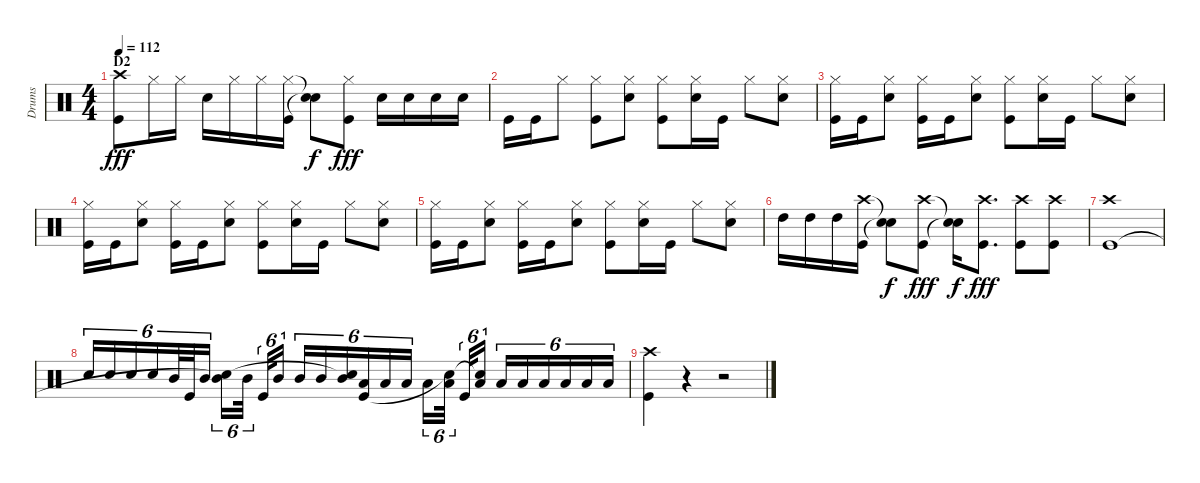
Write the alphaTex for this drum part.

\track ("Drums" "Drums") {instrument percussion}
\staff {score}
\articulation defaults
\ts (4 4)
\section ("" "D2")
\tempo 112
\clef neutral
\ks c
("Crash high (hit)" "Kick (hit)").8{dy fff} "Hi-Hat (closed)".16 "Hi-Hat (closed)".16 "Snare (hit) 2".16 "Hi-Hat (closed)".16 "Hi-Hat (closed)".16 ("Hi-Hat (closed)" "Kick (hit)").16 ("Snare (hit)"{t} "Snare (hit)"{t}).8{dy f} ("Hi-Hat (closed)" "Kick (hit)").8{dy fff} "Snare (hit) 2".16 "Snare (hit) 2".16 "Snare (hit) 2".16 "Snare (hit) 2".16 |
"Kick (hit)".16 "Kick (hit)".16 "Hi-Hat (closed)".8 ("Hi-Hat (closed)" "Kick (hit)").8 ("Hi-Hat (closed)" "Snare (hit) 2").8 ("Hi-Hat (closed)" "Kick (hit)").8 ("Hi-Hat (closed)" "Snare (hit) 2").16 "Kick (hit)".16 "Hi-Hat (closed)".8 ("Hi-Hat (closed)" "Snare (hit) 2").8 |
("Hi-Hat (closed)" "Kick (hit)").16 "Kick (hit)".16 ("Hi-Hat (closed)" "Snare (hit) 2").8 ("Hi-Hat (closed)" "Kick (hit)").16 "Kick (hit)".16 ("Hi-Hat (closed)" "Snare (hit) 2").8 ("Hi-Hat (closed)" "Kick (hit)").8 ("Hi-Hat (closed)" "Snare (hit) 2").16 "Kick (hit)".16 "Hi-Hat (closed)".8 ("Hi-Hat (closed)" "Snare (hit) 2").8 |
("Hi-Hat (closed)" "Kick (hit)").16 "Kick (hit)".16 ("Hi-Hat (closed)" "Snare (hit) 2").8 ("Hi-Hat (closed)" "Kick (hit)").16 "Kick (hit)".16 ("Hi-Hat (closed)" "Snare (hit) 2").8 ("Hi-Hat (closed)" "Kick (hit)").8 ("Hi-Hat (closed)" "Snare (hit) 2").16 "Kick (hit)".16 "Hi-Hat (closed)".8 ("Hi-Hat (closed)" "Snare (hit) 2").8 |
("Hi-Hat (closed)" "Kick (hit)").16 "Kick (hit)".16 ("Hi-Hat (closed)" "Snare (hit) 2").8 ("Hi-Hat (closed)" "Kick (hit)").16 "Kick (hit)".16 ("Hi-Hat (closed)" "Snare (hit) 2").8 ("Hi-Hat (closed)" "Kick (hit)").8 ("Hi-Hat (closed)" "Snare (hit) 2").16 "Kick (hit)".16 "Hi-Hat (closed)".8 ("Hi-Hat (closed)" "Snare (hit) 2").8 |
"High Tom (hit)".16 "High Tom (hit)".16 "High Tom (hit)".16 ("Crash high (hit)" "Kick (hit)").16 ("Snare (hit)"{t} "Snare (hit)"{t}).8{dy f} ("Crash high (hit)" "Kick (hit)").8{dy fff} ("Snare (hit)"{t} "Snare (hit)"{t}).16{dy f} ("Crash high (hit)" "Kick (hit)").8{d dy fff} ("Crash high (hit)" "Kick (hit)").8 ("Crash high (hit)" "Kick (hit)").8 |
("Crash high (hit)" "Kick (hit)").1 |
"Snare (hit) 2".16{tu (6 4)} "Snare (hit) 2".16{tu (6 4)} "Snare (hit) 2".16{tu (6 4)} "Snare (hit) 2".16{tu (6 4)} "Mid Tom (hit)".32{tu (6 4)} "Kick (hit)".32{tu (6 4)} "Mid Tom (hit)".16{tu (6 4)} ("Mid Tom (hit)" "Snare (hit)"{t}).16{tu (6 4)} "Mid Tom (hit)".32{tu (6 4)} "Kick (hit)".32{tu (6 4)} "Mid Tom (hit)".16{tu (6 4)} "Mid Tom (hit)".16{tu (6 4)} "Mid Tom (hit)".16{tu (6 4)} ("Mid Tom (hit)" "Snare (hit)"{t}).16{tu (6 4)} ("Low Tom (hit)" "Kick (hit)").16{tu (6 4)} "Low Tom (hit)".16{tu (6 4)} "Low Tom (hit)".16{tu (6 4)} "Low Tom (hit)".16{tu (6 4)} ("Low Tom (hit)" "Snare (hit)"{t}).32{tu (6 4)} "Kick (hit)".32{tu (6 4)} ("Low Tom (hit)" "Snare (hit)"{t}).16{tu (6 4)} "Low Tom (hit)".16{tu (6 4)} "Low Tom (hit)".16{tu (6 4)} "Low Tom (hit)".16{tu (6 4)} "Low Tom (hit)".16{tu (6 4)} "Low Tom (hit)".16{tu (6 4)} "Low Tom (hit)".16{tu (6 4)} |
("Crash high (hit)" "Kick (hit)").4 r.4 r.2
